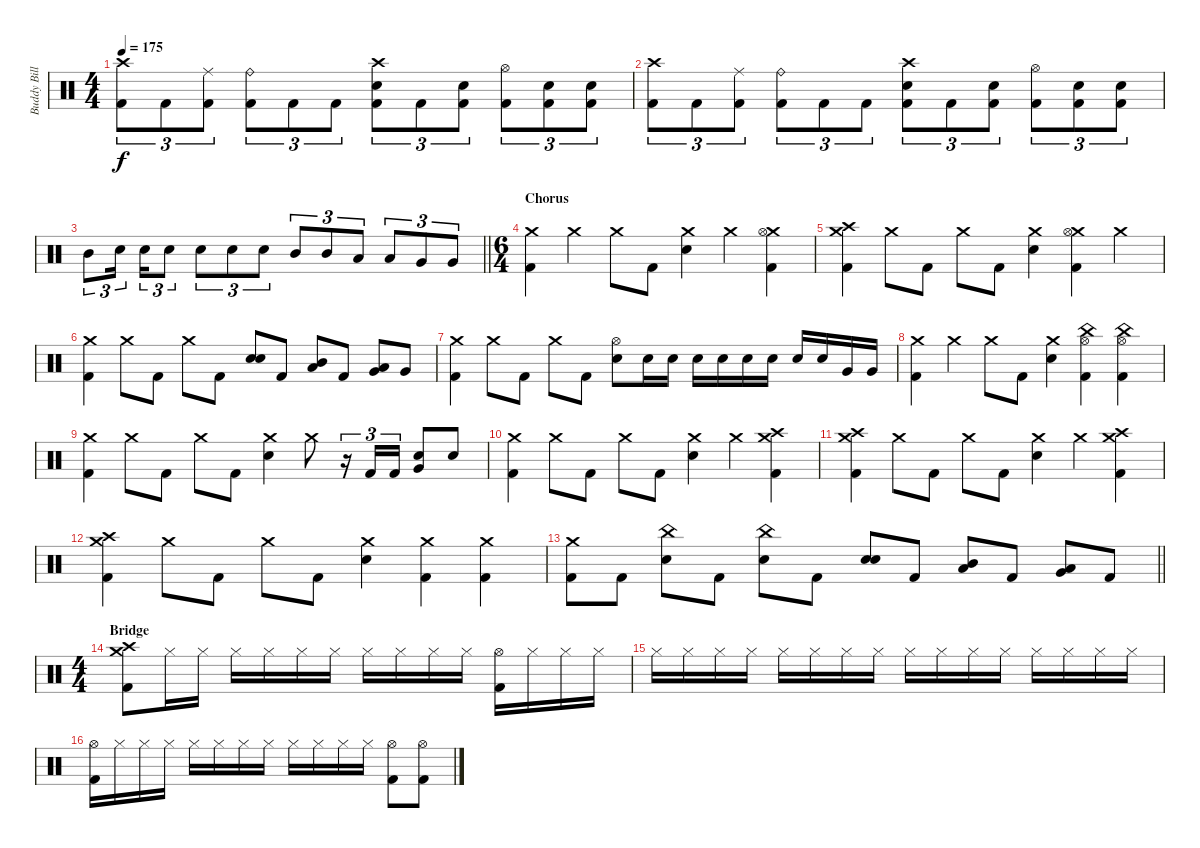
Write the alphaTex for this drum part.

\track ("Buddy Bill" "Buddy Bill") {instrument percussion}
\staff {score}
\articulation defaults
\ts (4 4)
\tempo 175
\clef neutral
\ks c
("Crash high (hit)" "Kick (hit) 2").8{tu (3 2) dy f} "Kick (hit) 2".8{tu (3 2)} ("Ride (middle)" "Kick (hit) 2").8{tu (3 2)} ("Ride (bell)" "Kick (hit) 2").8{tu (3 2)} "Kick (hit) 2".8{tu (3 2)} "Kick (hit) 2".8{tu (3 2)} ("Crash high (hit)" "Snare (hit) 2" "Kick (hit) 2").8{tu (3 2)} "Kick (hit) 2".8{tu (3 2)} ("Snare (hit) 2" "Kick (hit) 2").8{tu (3 2)} ("Hi-Hat (open)" "Kick (hit) 2").8{tu (3 2)} ("Snare (hit) 2" "Kick (hit) 2").8{tu (3 2)} ("Snare (hit) 2" "Kick (hit) 2").8{tu (3 2)} |
("Crash high (hit)" "Kick (hit) 2").8{tu (3 2)} "Kick (hit) 2".8{tu (3 2)} ("Ride (middle)" "Kick (hit) 2").8{tu (3 2)} ("Ride (bell)" "Kick (hit) 2").8{tu (3 2)} "Kick (hit) 2".8{tu (3 2)} "Kick (hit) 2".8{tu (3 2)} ("Crash high (hit)" "Snare (hit) 2" "Kick (hit) 2").8{tu (3 2)} "Kick (hit) 2".8{tu (3 2)} ("Snare (hit) 2" "Kick (hit) 2").8{tu (3 2)} ("Hi-Hat (open)" "Kick (hit) 2").8{tu (3 2)} ("Snare (hit) 2" "Kick (hit) 2").8{tu (3 2)} ("Snare (hit) 2" "Kick (hit) 2").8{tu (3 2)} |
\barLineRight lightlight "Mid Tom (hit)".8{tu (3 2)} "Snare (hit) 2".16{tu (3 2) beam splitsecondary} "Snare (hit) 2".16{tu (3 2)} "Snare (hit) 2".8{tu (3 2)} "Snare (hit) 2".8{tu (3 2)} "Snare (hit) 2".8{tu (3 2)} "Snare (hit) 2".8{tu (3 2)} "Mid Tom (hit)".8{tu (3 2)} "Mid Tom (hit)".8{tu (3 2)} "Low Tom (hit)".8{tu (3 2)} "Low Tom (hit)".8{tu (3 2)} "Very Low Tom (hit)".8{tu (3 2)} "Very Low Tom (hit)".8{tu (3 2)}
|
\ts (6 4)
\section ("" "Chorus")
("Crash medium (hit)" "Kick (hit) 2").4 "Crash medium (hit)".4 "Crash medium (hit)".8 "Kick (hit) 2".8 ("Crash medium (hit)" "Snare (hit) 2").4 "Crash medium (hit)".4 ("Crash medium (hit)" "Hi-Hat (open)" "Kick (hit) 2").4 |
("Crash medium (hit)" "Crash high (hit)" "Kick (hit) 2").4 "Crash medium (hit)".8 "Kick (hit) 2".8 "Crash medium (hit)".8 "Kick (hit) 2".8 ("Crash medium (hit)" "Snare (hit) 2").4 ("Crash medium (hit)" "Hi-Hat (open)" "Kick (hit) 2").4 "Crash medium (hit)".4 |
("Crash medium (hit)" "Kick (hit) 2").4 "Crash medium (hit)".8 "Kick (hit) 2".8 "Crash medium (hit)".8 "Kick (hit) 2".8 ("Snare (hit) 2" "Snare (hit) 2").8 "Kick (hit) 2".8 ("Mid Tom (hit)" "Low Tom (hit)").8 "Kick (hit) 2".8 ("Low Tom (hit)" "Very Low Tom (hit)").8 "Very Low Tom (hit)".8 |
("Crash medium (hit)" "Kick (hit) 2").4 "Crash medium (hit)".8 "Kick (hit) 2".8 "Crash medium (hit)".8 "Kick (hit) 2".8 ("Hi-Hat (open)" "Snare (hit) 2").8 "Snare (hit) 2".16 "Snare (hit) 2".16 "Snare (hit) 2".16 "Snare (hit) 2".16 "Snare (hit) 2".16 "Snare (hit) 2".16 "Snare (hit) 2".16 "Snare (hit) 2".16 "Very Low Tom (hit)".16 "Very Low Tom (hit)".16 |
("Crash medium (hit)" "Kick (hit) 2").4 "Crash medium (hit)".4 "Crash medium (hit)".8 "Kick (hit) 2".8 ("Crash medium (hit)" "Snare (hit) 2").4 ("China (hit)" "Hi-Hat (open)" "Kick (hit) 2").4 ("China (hit)" "Hi-Hat (open)" "Kick (hit) 2").4 |
("Crash medium (hit)" "Kick (hit) 2").4 "Crash medium (hit)".8 "Kick (hit) 2".8 "Crash medium (hit)".8 "Kick (hit) 2".8 ("Crash medium (hit)" "Snare (hit) 2").4 "Crash medium (hit)".8 r.16{tu (3 2)} "Kick (hit) 2".16{tu (3 2)} "Kick (hit) 2".16{tu (3 2)} ("Snare (hit) 2" "Very Low Tom (hit)").8 "Snare (hit) 2".8 |
("Crash medium (hit)" "Kick (hit) 2").4 "Crash medium (hit)".8 "Kick (hit) 2".8 "Crash medium (hit)".8 "Kick (hit) 2".8 ("Crash medium (hit)" "Snare (hit) 2").4 "Crash medium (hit)".4 ("Crash medium (hit)" "Crash high (hit)" "Kick (hit) 2").4 |
("Crash medium (hit)" "Crash high (hit)" "Kick (hit) 2").4 "Crash medium (hit)".8 "Kick (hit) 2".8 "Crash medium (hit)".8 "Kick (hit) 2".8 ("Crash medium (hit)" "Snare (hit) 2").4 "Crash medium (hit)".4 ("Crash medium (hit)" "Crash high (hit)" "Kick (hit) 2").4 |
("Crash medium (hit)" "Crash high (hit)" "Kick (hit) 2").4 "Crash medium (hit)".8 "Kick (hit) 2".8 "Crash medium (hit)".8 "Kick (hit) 2".8 ("Crash medium (hit)" "Snare (hit) 2").4 ("Crash medium (hit)" "Kick (hit) 2").4 ("Crash medium (hit)" "Kick (hit) 2").4 |
\barLineRight lightlight
("Crash medium (hit)" "Kick (hit) 2").8 "Kick (hit) 2".8 ("China (hit)" "Snare (hit) 2").8 "Kick (hit) 2".8 ("China (hit)" "Snare (hit) 2").8 "Kick (hit) 2".8 ("Snare (hit) 2" "Snare (hit) 2").8 "Kick (hit) 2".8 ("Mid Tom (hit)" "Low Tom (hit)").8 "Kick (hit) 2".8 ("Low Tom (hit)" "Very Low Tom (hit)").8 "Kick (hit) 2".8 |
\ts (4 4)
\section ("" "Bridge")
("Crash medium (hit)" "Crash high (hit)" "Kick (hit) 2").8 "Hi-Hat (closed)".16 "Hi-Hat (closed)".16 "Hi-Hat (closed)".16 "Hi-Hat (closed)".16 "Hi-Hat (closed)".16 "Hi-Hat (closed)".16 "Hi-Hat (closed)".16 "Hi-Hat (closed)".16 "Hi-Hat (closed)".16 "Hi-Hat (closed)".16 ("Hi-Hat (open)" "Kick (hit) 2").16 "Hi-Hat (closed)".16 "Hi-Hat (closed)".16 "Hi-Hat (closed)".16 |
"Hi-Hat (closed)".16 "Hi-Hat (closed)".16 "Hi-Hat (closed)".16 "Hi-Hat (closed)".16 "Hi-Hat (closed)".16 "Hi-Hat (closed)".16 "Hi-Hat (closed)".16 "Hi-Hat (closed)".16 "Hi-Hat (closed)".16 "Hi-Hat (closed)".16 "Hi-Hat (closed)".16 "Hi-Hat (closed)".16 "Hi-Hat (closed)".16 "Hi-Hat (closed)".16 "Hi-Hat (closed)".16 "Hi-Hat (closed)".16 |
("Hi-Hat (open)" "Kick (hit) 2").16 "Hi-Hat (closed)".16 "Hi-Hat (closed)".16 "Hi-Hat (closed)".16 "Hi-Hat (closed)".16 "Hi-Hat (closed)".16 "Hi-Hat (closed)".16 "Hi-Hat (closed)".16 "Hi-Hat (closed)".16 "Hi-Hat (closed)".16 "Hi-Hat (closed)".16 "Hi-Hat (closed)".16 ("Hi-Hat (open)" "Kick (hit) 2").8 ("Hi-Hat (open)" "Kick (hit) 2").8
